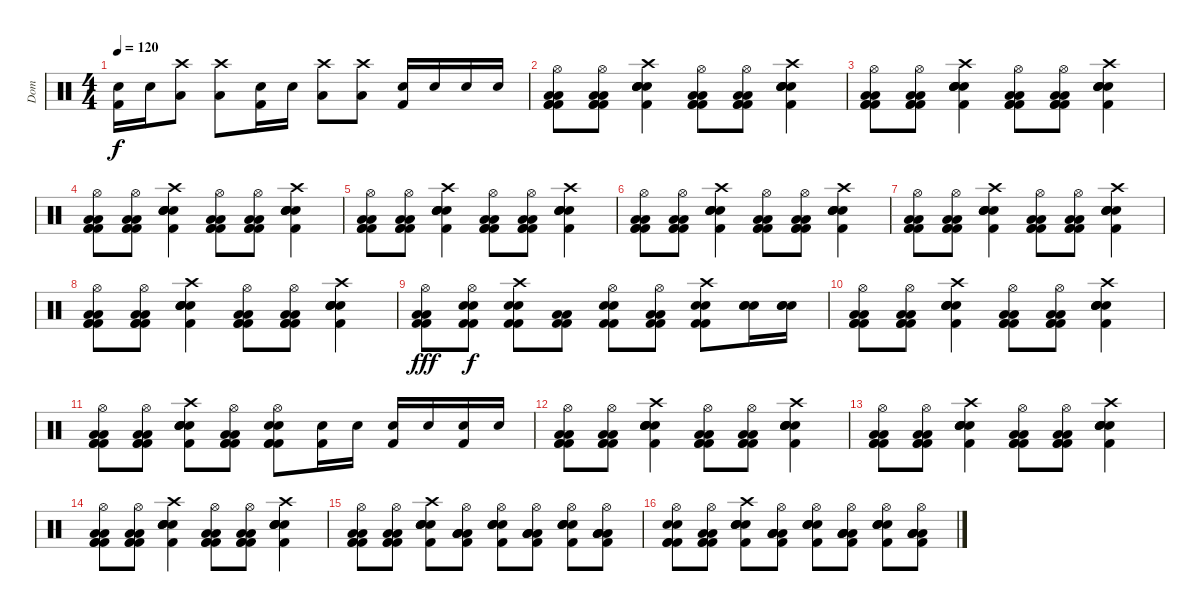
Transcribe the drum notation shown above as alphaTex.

\track ("Dom" "Dom") {instrument percussion}
\staff {score}
\articulation defaults
\ts (4 4)
\tempo 120
\clef neutral
\ks c
("Electric Snare (hit)" "Kick (hit) 2").16{dy f} "Electric Snare (hit)".16 ("Crash high (hit)" "Low Floor Tom (hit)").8 ("Crash high (hit)" "Low Floor Tom (hit)").8 ("Electric Snare (hit)" "Kick (hit) 2").16 "Electric Snare (hit)".16 ("Crash high (hit)" "Low Floor Tom (hit)").8 ("Crash high (hit)" "Low Floor Tom (hit)").8 ("Electric Snare (hit)" "Kick (hit) 2").16 "Electric Snare (hit)".16 "Electric Snare (hit)".16 "Electric Snare (hit)".16 |
("Hi-Hat (open)" "Low Floor Tom (hit)" "Low Floor Tom (hit)" "Kick (hit) 2" "Kick (hit) 2" "Kick (hit) 2").8 ("Hi-Hat (open)" "Low Floor Tom (hit)" "Low Floor Tom (hit)" "Kick (hit) 2" "Kick (hit) 2" "Kick (hit) 2").8 ("Crash high (hit)" "Electric Snare (hit)" "Electric Snare (hit)" "Electric Snare (hit)" "Electric Snare (hit)" "Kick (hit) 2").4 ("Hi-Hat (open)" "Low Floor Tom (hit)" "Low Floor Tom (hit)" "Kick (hit) 2" "Kick (hit) 2" "Kick (hit) 2").8 ("Hi-Hat (open)" "Low Floor Tom (hit)" "Low Floor Tom (hit)" "Kick (hit) 2" "Kick (hit) 2" "Kick (hit) 2").8 ("Crash high (hit)" "Electric Snare (hit)" "Electric Snare (hit)" "Electric Snare (hit)" "Electric Snare (hit)" "Kick (hit) 2").4 |
("Hi-Hat (open)" "Low Floor Tom (hit)" "Low Floor Tom (hit)" "Kick (hit) 2" "Kick (hit) 2" "Kick (hit) 2").8 ("Hi-Hat (open)" "Low Floor Tom (hit)" "Low Floor Tom (hit)" "Kick (hit) 2" "Kick (hit) 2" "Kick (hit) 2").8 ("Crash high (hit)" "Electric Snare (hit)" "Electric Snare (hit)" "Electric Snare (hit)" "Electric Snare (hit)" "Kick (hit) 2").4 ("Hi-Hat (open)" "Low Floor Tom (hit)" "Low Floor Tom (hit)" "Kick (hit) 2" "Kick (hit) 2" "Kick (hit) 2").8 ("Hi-Hat (open)" "Low Floor Tom (hit)" "Low Floor Tom (hit)" "Kick (hit) 2" "Kick (hit) 2" "Kick (hit) 2").8 ("Crash high (hit)" "Electric Snare (hit)" "Electric Snare (hit)" "Electric Snare (hit)" "Electric Snare (hit)" "Kick (hit) 2").4 |
("Hi-Hat (open)" "Low Floor Tom (hit)" "Low Floor Tom (hit)" "Kick (hit) 2" "Kick (hit) 2" "Kick (hit) 2").8 ("Hi-Hat (open)" "Low Floor Tom (hit)" "Low Floor Tom (hit)" "Kick (hit) 2" "Kick (hit) 2" "Kick (hit) 2").8 ("Crash high (hit)" "Electric Snare (hit)" "Electric Snare (hit)" "Electric Snare (hit)" "Electric Snare (hit)" "Kick (hit) 2").4 ("Hi-Hat (open)" "Low Floor Tom (hit)" "Low Floor Tom (hit)" "Kick (hit) 2" "Kick (hit) 2" "Kick (hit) 2").8 ("Hi-Hat (open)" "Low Floor Tom (hit)" "Low Floor Tom (hit)" "Kick (hit) 2" "Kick (hit) 2" "Kick (hit) 2").8 ("Crash high (hit)" "Electric Snare (hit)" "Electric Snare (hit)" "Electric Snare (hit)" "Electric Snare (hit)" "Kick (hit) 2").4 |
("Hi-Hat (open)" "Low Floor Tom (hit)" "Low Floor Tom (hit)" "Kick (hit) 2" "Kick (hit) 2" "Kick (hit) 2").8 ("Hi-Hat (open)" "Low Floor Tom (hit)" "Low Floor Tom (hit)" "Kick (hit) 2" "Kick (hit) 2" "Kick (hit) 2").8 ("Crash high (hit)" "Electric Snare (hit)" "Electric Snare (hit)" "Electric Snare (hit)" "Electric Snare (hit)" "Kick (hit) 2").4 ("Hi-Hat (open)" "Low Floor Tom (hit)" "Low Floor Tom (hit)" "Kick (hit) 2" "Kick (hit) 2" "Kick (hit) 2").8 ("Hi-Hat (open)" "Low Floor Tom (hit)" "Low Floor Tom (hit)" "Kick (hit) 2" "Kick (hit) 2" "Kick (hit) 2").8 ("Crash high (hit)" "Electric Snare (hit)" "Electric Snare (hit)" "Electric Snare (hit)" "Electric Snare (hit)" "Kick (hit) 2").4 |
("Hi-Hat (open)" "Low Floor Tom (hit)" "Low Floor Tom (hit)" "Kick (hit) 2" "Kick (hit) 2" "Kick (hit) 2").8 ("Hi-Hat (open)" "Low Floor Tom (hit)" "Low Floor Tom (hit)" "Kick (hit) 2" "Kick (hit) 2" "Kick (hit) 2").8 ("Crash high (hit)" "Electric Snare (hit)" "Electric Snare (hit)" "Electric Snare (hit)" "Electric Snare (hit)" "Kick (hit) 2").4 ("Hi-Hat (open)" "Low Floor Tom (hit)" "Low Floor Tom (hit)" "Kick (hit) 2" "Kick (hit) 2" "Kick (hit) 2").8 ("Hi-Hat (open)" "Low Floor Tom (hit)" "Low Floor Tom (hit)" "Kick (hit) 2" "Kick (hit) 2" "Kick (hit) 2").8 ("Crash high (hit)" "Electric Snare (hit)" "Electric Snare (hit)" "Electric Snare (hit)" "Electric Snare (hit)" "Kick (hit) 2").4 |
("Hi-Hat (open)" "Low Floor Tom (hit)" "Low Floor Tom (hit)" "Kick (hit) 2" "Kick (hit) 2" "Kick (hit) 2").8 ("Hi-Hat (open)" "Low Floor Tom (hit)" "Low Floor Tom (hit)" "Kick (hit) 2" "Kick (hit) 2" "Kick (hit) 2").8 ("Crash high (hit)" "Electric Snare (hit)" "Electric Snare (hit)" "Electric Snare (hit)" "Electric Snare (hit)" "Kick (hit) 2").4 ("Hi-Hat (open)" "Low Floor Tom (hit)" "Low Floor Tom (hit)" "Kick (hit) 2" "Kick (hit) 2" "Kick (hit) 2").8 ("Hi-Hat (open)" "Low Floor Tom (hit)" "Low Floor Tom (hit)" "Kick (hit) 2" "Kick (hit) 2" "Kick (hit) 2").8 ("Crash high (hit)" "Electric Snare (hit)" "Electric Snare (hit)" "Electric Snare (hit)" "Electric Snare (hit)" "Kick (hit) 2").4 |
("Hi-Hat (open)" "Low Floor Tom (hit)" "Low Floor Tom (hit)" "Kick (hit) 2" "Kick (hit) 2" "Kick (hit) 2").8 ("Hi-Hat (open)" "Low Floor Tom (hit)" "Low Floor Tom (hit)" "Kick (hit) 2" "Kick (hit) 2" "Kick (hit) 2").8 ("Crash high (hit)" "Electric Snare (hit)" "Electric Snare (hit)" "Electric Snare (hit)" "Electric Snare (hit)" "Kick (hit) 2").4 ("Hi-Hat (open)" "Low Floor Tom (hit)" "Low Floor Tom (hit)" "Kick (hit) 2" "Kick (hit) 2" "Kick (hit) 2").8 ("Hi-Hat (open)" "Low Floor Tom (hit)" "Low Floor Tom (hit)" "Kick (hit) 2" "Kick (hit) 2" "Kick (hit) 2").8 ("Crash high (hit)" "Electric Snare (hit)" "Electric Snare (hit)" "Electric Snare (hit)" "Electric Snare (hit)" "Kick (hit) 2").4 |
("Hi-Hat (open)" "Low Floor Tom (hit)" "Low Floor Tom (hit)" "Kick (hit) 2" "Kick (hit) 2").8{dy fff} ("Hi-Hat (open)" "Electric Snare (hit)" "Electric Snare (hit)" "Kick (hit) 2" "Kick (hit) 2").8{dy f} ("Crash high (hit)" "Electric Snare (hit)" "Electric Snare (hit)" "Kick (hit) 2" "Kick (hit) 2").8 ("Low Floor Tom (hit)" "Low Floor Tom (hit)" "Kick (hit) 2" "Kick (hit) 2").8 ("Hi-Hat (open)" "Electric Snare (hit)" "Electric Snare (hit)" "Kick (hit) 2" "Kick (hit) 2").8 ("Hi-Hat (open)" "Low Floor Tom (hit)" "Low Floor Tom (hit)" "Kick (hit) 2" "Kick (hit) 2").8 ("Crash high (hit)" "Electric Snare (hit)" "Electric Snare (hit)" "Kick (hit) 2" "Kick (hit) 2").8 ("Electric Snare (hit)" "Electric Snare (hit)" "Electric Snare (hit)").16 ("Electric Snare (hit)" "Electric Snare (hit)" "Electric Snare (hit)").16 |
("Hi-Hat (open)" "Low Floor Tom (hit)" "Low Floor Tom (hit)" "Kick (hit) 2" "Kick (hit) 2" "Kick (hit) 2").8 ("Hi-Hat (open)" "Low Floor Tom (hit)" "Low Floor Tom (hit)" "Kick (hit) 2" "Kick (hit) 2" "Kick (hit) 2").8 ("Crash high (hit)" "Electric Snare (hit)" "Electric Snare (hit)" "Electric Snare (hit)" "Electric Snare (hit)" "Kick (hit) 2").4 ("Hi-Hat (open)" "Low Floor Tom (hit)" "Low Floor Tom (hit)" "Kick (hit) 2" "Kick (hit) 2" "Kick (hit) 2").8 ("Hi-Hat (open)" "Low Floor Tom (hit)" "Low Floor Tom (hit)" "Kick (hit) 2" "Kick (hit) 2" "Kick (hit) 2").8 ("Crash high (hit)" "Electric Snare (hit)" "Electric Snare (hit)" "Electric Snare (hit)" "Electric Snare (hit)" "Kick (hit) 2").4 |
("Hi-Hat (open)" "Low Floor Tom (hit)" "Low Floor Tom (hit)" "Kick (hit) 2" "Kick (hit) 2" "Kick (hit) 2").8 ("Hi-Hat (open)" "Low Floor Tom (hit)" "Low Floor Tom (hit)" "Kick (hit) 2" "Kick (hit) 2" "Kick (hit) 2").8 ("Crash high (hit)" "Electric Snare (hit)" "Electric Snare (hit)" "Electric Snare (hit)" "Electric Snare (hit)" "Kick (hit) 2").8 ("Hi-Hat (open)" "Low Floor Tom (hit)" "Low Floor Tom (hit)" "Kick (hit) 2" "Kick (hit) 2" "Kick (hit) 2").8 ("Hi-Hat (open)" "Electric Snare (hit)" "Electric Snare (hit)" "Kick (hit) 2" "Kick (hit) 2" "Kick (hit) 2").8 ("Electric Snare (hit)" "Kick (hit) 2").16 "Electric Snare (hit)".16 ("Electric Snare (hit)" "Kick (hit) 2").16 "Electric Snare (hit)".16 ("Electric Snare (hit)" "Kick (hit) 2").16 "Electric Snare (hit)".16 |
("Hi-Hat (open)" "Low Floor Tom (hit)" "Low Floor Tom (hit)" "Kick (hit) 2" "Kick (hit) 2" "Kick (hit) 2").8 ("Hi-Hat (open)" "Low Floor Tom (hit)" "Low Floor Tom (hit)" "Kick (hit) 2" "Kick (hit) 2" "Kick (hit) 2").8 ("Crash high (hit)" "Electric Snare (hit)" "Electric Snare (hit)" "Electric Snare (hit)" "Electric Snare (hit)" "Kick (hit) 2").4 ("Hi-Hat (open)" "Low Floor Tom (hit)" "Low Floor Tom (hit)" "Kick (hit) 2" "Kick (hit) 2" "Kick (hit) 2").8 ("Hi-Hat (open)" "Low Floor Tom (hit)" "Low Floor Tom (hit)" "Kick (hit) 2" "Kick (hit) 2" "Kick (hit) 2").8 ("Crash high (hit)" "Electric Snare (hit)" "Electric Snare (hit)" "Electric Snare (hit)" "Electric Snare (hit)" "Kick (hit) 2").4 |
("Hi-Hat (open)" "Low Floor Tom (hit)" "Low Floor Tom (hit)" "Kick (hit) 2" "Kick (hit) 2" "Kick (hit) 2").8 ("Hi-Hat (open)" "Low Floor Tom (hit)" "Low Floor Tom (hit)" "Kick (hit) 2" "Kick (hit) 2" "Kick (hit) 2").8 ("Crash high (hit)" "Electric Snare (hit)" "Electric Snare (hit)" "Electric Snare (hit)" "Electric Snare (hit)" "Kick (hit) 2").4 ("Hi-Hat (open)" "Low Floor Tom (hit)" "Low Floor Tom (hit)" "Kick (hit) 2" "Kick (hit) 2" "Kick (hit) 2").8 ("Hi-Hat (open)" "Low Floor Tom (hit)" "Low Floor Tom (hit)" "Kick (hit) 2" "Kick (hit) 2" "Kick (hit) 2").8 ("Crash high (hit)" "Electric Snare (hit)" "Electric Snare (hit)" "Electric Snare (hit)" "Electric Snare (hit)" "Kick (hit) 2").4 |
("Hi-Hat (open)" "Low Floor Tom (hit)" "Low Floor Tom (hit)" "Kick (hit) 2" "Kick (hit) 2" "Kick (hit) 2").8 ("Hi-Hat (open)" "Low Floor Tom (hit)" "Low Floor Tom (hit)" "Kick (hit) 2" "Kick (hit) 2" "Kick (hit) 2").8 ("Crash high (hit)" "Electric Snare (hit)" "Electric Snare (hit)" "Electric Snare (hit)" "Electric Snare (hit)" "Kick (hit) 2").4 ("Hi-Hat (open)" "Low Floor Tom (hit)" "Low Floor Tom (hit)" "Kick (hit) 2" "Kick (hit) 2" "Kick (hit) 2").8 ("Hi-Hat (open)" "Low Floor Tom (hit)" "Low Floor Tom (hit)" "Kick (hit) 2" "Kick (hit) 2" "Kick (hit) 2").8 ("Crash high (hit)" "Electric Snare (hit)" "Electric Snare (hit)" "Electric Snare (hit)" "Electric Snare (hit)" "Kick (hit) 2").4 |
("Hi-Hat (open)" "Low Floor Tom (hit)" "Low Floor Tom (hit)" "Kick (hit) 2" "Kick (hit) 2" "Kick (hit) 2").8 ("Hi-Hat (open)" "Low Floor Tom (hit)" "Low Floor Tom (hit)" "Kick (hit) 2" "Kick (hit) 2" "Kick (hit) 2").8 ("Crash high (hit)" "Electric Snare (hit)" "Electric Snare (hit)" "Electric Snare (hit)" "Electric Snare (hit)" "Kick (hit) 2").8 ("Hi-Hat (open)" "Low Floor Tom (hit)" "Low Floor Tom (hit)" "Low Floor Tom (hit)" "Low Floor Tom (hit)" "Kick (hit) 2").8 ("Hi-Hat (open)" "Electric Snare (hit)" "Electric Snare (hit)" "Electric Snare (hit)" "Electric Snare (hit)" "Kick (hit) 2").8 ("Hi-Hat (open)" "Low Floor Tom (hit)" "Low Floor Tom (hit)" "Low Floor Tom (hit)" "Low Floor Tom (hit)" "Kick (hit) 2").8 ("Hi-Hat (open)" "Electric Snare (hit)" "Electric Snare (hit)" "Electric Snare (hit)" "Electric Snare (hit)" "Kick (hit) 2").8 ("Hi-Hat (open)" "Low Floor Tom (hit)" "Low Floor Tom (hit)" "Low Floor Tom (hit)" "Low Floor Tom (hit)" "Kick (hit) 2").8 |
("Hi-Hat (open)" "Electric Snare (hit)" "Electric Snare (hit)" "Kick (hit) 2" "Kick (hit) 2" "Kick (hit) 2").8 ("Hi-Hat (open)" "Low Floor Tom (hit)" "Low Floor Tom (hit)" "Kick (hit) 2" "Kick (hit) 2" "Kick (hit) 2").8 ("Crash high (hit)" "Electric Snare (hit)" "Electric Snare (hit)" "Electric Snare (hit)" "Electric Snare (hit)" "Kick (hit) 2").8 ("Hi-Hat (open)" "Low Floor Tom (hit)" "Low Floor Tom (hit)" "Low Floor Tom (hit)" "Low Floor Tom (hit)" "Kick (hit) 2").8 ("Hi-Hat (open)" "Electric Snare (hit)" "Electric Snare (hit)" "Electric Snare (hit)" "Electric Snare (hit)" "Kick (hit) 2").8 ("Hi-Hat (open)" "Low Floor Tom (hit)" "Low Floor Tom (hit)" "Low Floor Tom (hit)" "Low Floor Tom (hit)" "Kick (hit) 2").8 ("Hi-Hat (open)" "Electric Snare (hit)" "Electric Snare (hit)" "Electric Snare (hit)" "Electric Snare (hit)" "Kick (hit) 2").8 ("Hi-Hat (open)" "Low Floor Tom (hit)" "Low Floor Tom (hit)" "Low Floor Tom (hit)" "Low Floor Tom (hit)" "Kick (hit) 2").8
